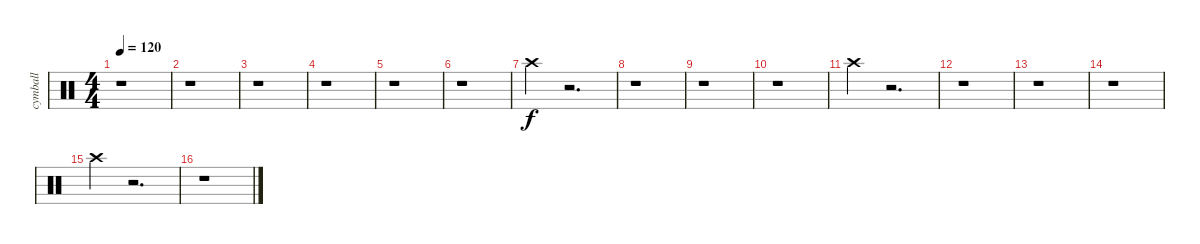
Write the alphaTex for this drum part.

\track ("cymball" "cymball") {instrument percussion}
\staff {score}
\articulation defaults
\ts (4 4)
\tempo 120
\clef neutral
\ks c
r.1{dy f} |
r.1 |
r.1 |
r.1 |
r.1 |
r.1 |
"Crash high (hit)".4 r.2{d} |
r.1 |
r.1 |
r.1 |
"Crash high (hit)".4 r.2{d} |
r.1 |
r.1 |
r.1 |
"Crash high (hit)".4 r.2{d} |
r.1
